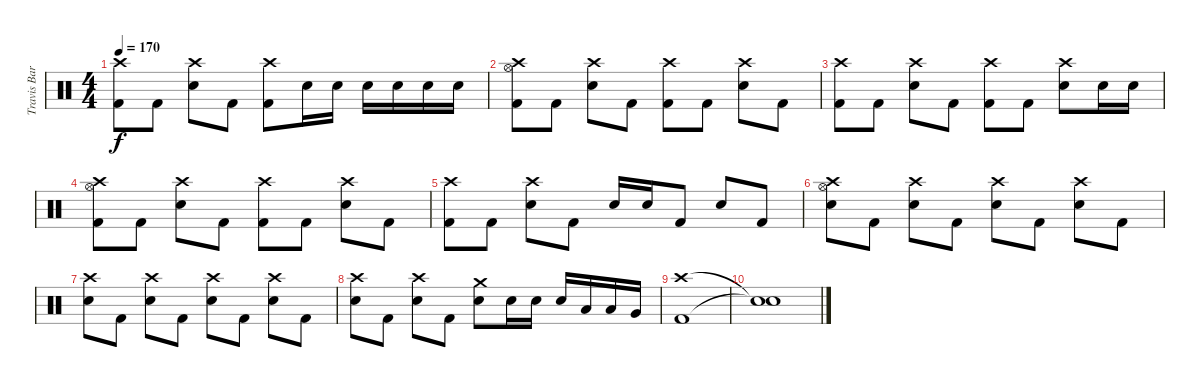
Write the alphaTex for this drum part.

\track ("Travis Barker" "Travis Bar") {instrument percussion}
\staff {score}
\articulation defaults
\ts (4 4)
\tempo 170
\clef neutral
\ks c
("Crash high (hit)" "Kick (hit) 2").8{dy f} "Kick (hit) 2".8 ("Crash high (hit)" "Snare (hit) 2").8 "Kick (hit) 2".8 ("Crash high (hit)" "Kick (hit) 2").8 "Snare (hit) 2".16 "Snare (hit) 2".16 "Snare (hit) 2".16 "Snare (hit) 2".16 "Snare (hit) 2".16 "Snare (hit) 2".16 |
("Crash high (hit)" "Hi-Hat (open)" "Kick (hit) 2").8 "Kick (hit) 2".8 ("Crash high (hit)" "Snare (hit) 2").8 "Kick (hit) 2".8 ("Crash high (hit)" "Kick (hit) 2").8 "Kick (hit) 2".8 ("Crash high (hit)" "Snare (hit) 2").8 "Kick (hit) 2".8 |
("Crash high (hit)" "Kick (hit) 2").8 "Kick (hit) 2".8 ("Crash high (hit)" "Snare (hit) 2").8 "Kick (hit) 2".8 ("Crash high (hit)" "Kick (hit) 2").8 "Kick (hit) 2".8 ("Crash high (hit)" "Snare (hit) 2").8 "Snare (hit) 2".16 "Snare (hit) 2".16 |
("Crash high (hit)" "Hi-Hat (open)" "Kick (hit) 2").8 "Kick (hit) 2".8 ("Crash high (hit)" "Snare (hit) 2").8 "Kick (hit) 2".8 ("Crash high (hit)" "Kick (hit) 2").8 "Kick (hit) 2".8 ("Crash high (hit)" "Snare (hit) 2").8 "Kick (hit) 2".8 |
("Crash high (hit)" "Kick (hit) 2").8 "Kick (hit) 2".8 ("Crash high (hit)" "Snare (hit) 2").8 "Kick (hit) 2".8 "Snare (hit) 2".16 "Snare (hit) 2".16 "Kick (hit) 2".8 "Snare (hit) 2".8 "Kick (hit) 2".8 |
("Crash high (hit)" "Hi-Hat (open)" "Snare (hit) 2").8 "Kick (hit) 2".8 ("Crash high (hit)" "Snare (hit) 2").8 "Kick (hit) 2".8 ("Crash high (hit)" "Snare (hit) 2").8 "Kick (hit) 2".8 ("Crash high (hit)" "Snare (hit) 2").8 "Kick (hit) 2".8 |
("Crash high (hit)" "Snare (hit) 2").8 "Kick (hit) 2".8 ("Crash high (hit)" "Snare (hit) 2").8 "Kick (hit) 2".8 ("Crash high (hit)" "Snare (hit) 2").8 "Kick (hit) 2".8 ("Crash high (hit)" "Snare (hit) 2").8 "Kick (hit) 2".8 |
("Crash high (hit)" "Snare (hit) 2").8 "Kick (hit) 2".8 ("Crash high (hit)" "Snare (hit) 2").8 "Kick (hit) 2".8 ("Crash medium (hit)" "Snare (hit) 2").8 "Snare (hit) 2".16 "Snare (hit) 2".16 "Snare (hit) 2".16 "Low Tom (hit)".16 "Low Tom (hit)".16 "Very Low Tom (hit)".16 |
("Crash high (hit)" "Kick (hit) 2").1 |
("Snare (hit)"{t} "Snare (hit)"{t}).1
